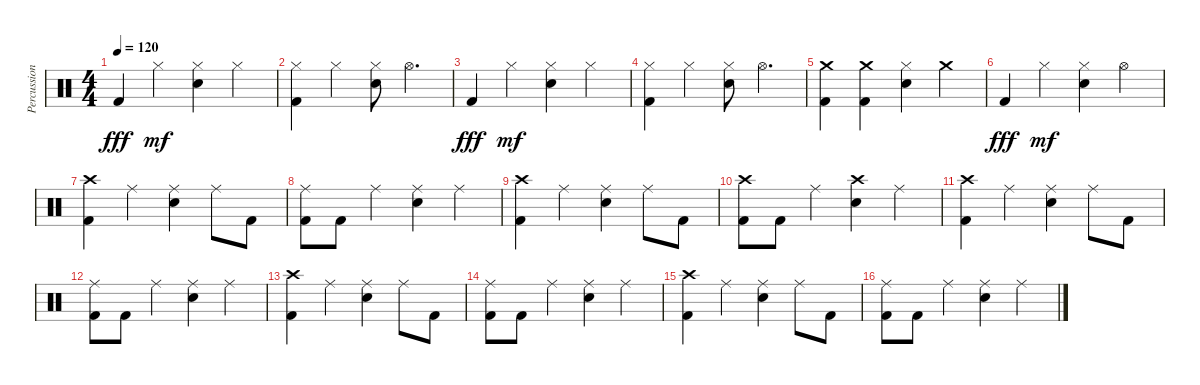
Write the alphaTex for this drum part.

\track ("Percussioni" "Percussion") {instrument percussion}
\staff {score}
\articulation defaults
\ts (4 4)
\tempo 120
\clef neutral
\ks c "Kick (hit) 2".4{dy fff} "Hi-Hat (closed)".4{dy mf}
("Hi-Hat (closed)" "Snare (hit) 2").4 "Hi-Hat (closed)".4 |
("Hi-Hat (closed)" "Kick (hit) 2").4 "Hi-Hat (closed)".4 ("Hi-Hat (closed)" "Snare (hit) 2").8 "Hi-Hat (open)".4{d} |
"Kick (hit) 2".4{dy fff} "Hi-Hat (closed)".4{dy mf} ("Hi-Hat (closed)" "Snare (hit) 2").4 "Hi-Hat (closed)".4 |
("Hi-Hat (closed)" "Kick (hit) 2").4 "Hi-Hat (closed)".4 ("Hi-Hat (closed)" "Snare (hit) 2").8 "Hi-Hat (open)".4{d} |
("Crash medium (hit)" "Kick (hit) 2").4 ("Crash medium (hit)" "Kick (hit) 2").4 ("Hi-Hat (closed)" "Snare (hit) 2").4 "Crash medium (hit)".4 |
"Kick (hit) 2".4{dy fff} "Hi-Hat (closed)".4{dy mf} ("Hi-Hat (closed)" "Snare (hit) 2").4 "Hi-Hat (open)".4 |
("Crash high (hit)" "Kick (hit) 2").4 "Ride (middle)".4 ("Ride (middle)" "Snare (hit) 2").4 "Ride (middle)".8 "Kick (hit) 2".8 |
("Ride (middle)" "Kick (hit) 2").8 "Kick (hit) 2".8 "Ride (middle)".4 ("Ride (middle)" "Snare (hit) 2").4 "Ride (middle)".4 |
("Crash high (hit)" "Kick (hit) 2").4 "Ride (middle)".4 ("Ride (middle)" "Snare (hit) 2").4 "Ride (middle)".8 "Kick (hit) 2".8 |
("Crash high (hit)" "Kick (hit) 2").8 "Kick (hit) 2".8 "Ride (middle)".4 ("Crash high (hit)" "Snare (hit) 2").4 "Ride (middle)".4 |
("Crash high (hit)" "Kick (hit) 2").4 "Ride (middle)".4 ("Ride (middle)" "Snare (hit) 2").4 "Ride (middle)".8 "Kick (hit) 2".8 |
("Ride (middle)" "Kick (hit) 2").8 "Kick (hit) 2".8 "Ride (middle)".4 ("Ride (middle)" "Snare (hit) 2").4 "Ride (middle)".4 |
("Crash high (hit)" "Kick (hit) 2").4 "Ride (middle)".4 ("Ride (middle)" "Snare (hit) 2").4 "Ride (middle)".8 "Kick (hit) 2".8 |
("Ride (middle)" "Kick (hit) 2").8 "Kick (hit) 2".8 "Ride (middle)".4 ("Ride (middle)" "Snare (hit) 2").4 "Ride (middle)".4 |
("Crash high (hit)" "Kick (hit) 2").4 "Ride (middle)".4 ("Ride (middle)" "Snare (hit) 2").4 "Ride (middle)".8 "Kick (hit) 2".8 |
("Ride (middle)" "Kick (hit) 2").8 "Kick (hit) 2".8 "Ride (middle)".4 ("Ride (middle)" "Snare (hit) 2").4 "Ride (middle)".4
